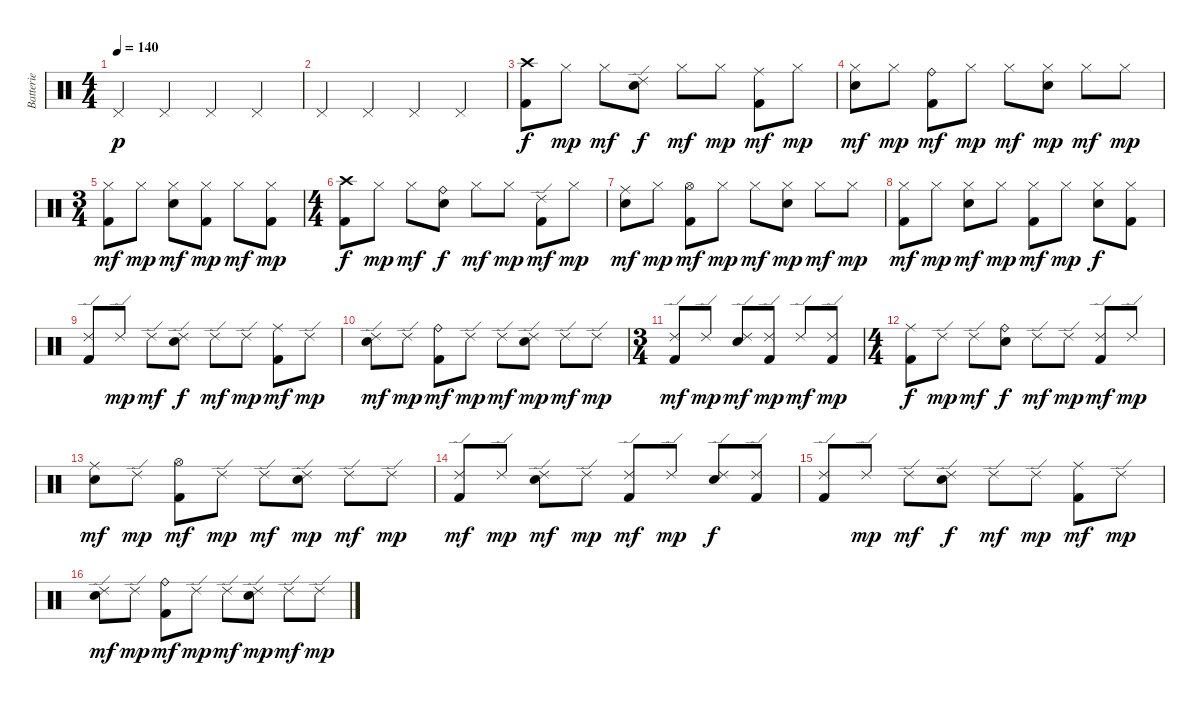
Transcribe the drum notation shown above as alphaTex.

\track ("Batterie" "Batterie") {instrument percussion}
\staff {score}
\articulation defaults
\ts (4 4)
\tempo 140
\clef neutral
\ks c "Pedal Hi-Hat (hit)".4{dy p} "Pedal Hi-Hat (hit)".4 "Pedal Hi-Hat (hit)".4 "Pedal Hi-Hat (hit)".4
|
"Pedal Hi-Hat (hit)".4 "Pedal Hi-Hat (hit)".4 "Pedal Hi-Hat (hit)".4 "Pedal Hi-Hat (hit)".4 |
("Crash high (hit)" "Kick (hit) 2").8{dy f} "Hi-Hat (closed)".8{dy mp} "Hi-Hat (closed)".8{dy mf} ("Ride (edge) 2" "Electric Snare (hit)").8{dy f} "Hi-Hat (closed)".8{dy mf} "Hi-Hat (closed)".8{dy mp} ("Ride (middle)" "Kick (hit) 2").8{dy mf} "Hi-Hat (closed)".8{dy mp} |
("Hi-Hat (closed)" "Electric Snare (hit)").8{dy mf} "Hi-Hat (closed)".8{dy mp} ("Ride (bell)" "Kick (hit) 2").8{dy mf} "Hi-Hat (closed)".8{dy mp} "Hi-Hat (closed)".8{dy mf} ("Hi-Hat (closed)" "Electric Snare (hit)").8{dy mp} "Hi-Hat (closed)".8{dy mf} "Hi-Hat (closed)".8{dy mp} |
\ts (3 4)
("Hi-Hat (closed)" "Kick (hit) 2").8{dy mf} "Hi-Hat (closed)".8{dy mp} ("Hi-Hat (closed)" "Electric Snare (hit)").8{dy mf} ("Hi-Hat (closed)" "Kick (hit) 2").8{dy mp} "Hi-Hat (closed)".8{dy mf} ("Hi-Hat (closed)" "Kick (hit) 2").8{dy mp} |
\ts (4 4)
("Crash high (hit)" "Kick (hit) 2").8{dy f} "Hi-Hat (closed)".8{dy mp} "Hi-Hat (closed)".8{dy mf} ("Ride (bell)" "Electric Snare (hit)").8{dy f} "Hi-Hat (closed)".8{dy mf} "Hi-Hat (closed)".8{dy mp} ("Ride (edge) 2" "Kick (hit) 2").8{dy mf} "Hi-Hat (closed)".8{dy mp} |
("Ride (middle)" "Electric Snare (hit)").8{dy mf} "Hi-Hat (closed)".8{dy mp} ("Hi-Hat (open)" "Kick (hit) 2").8{dy mf} "Hi-Hat (closed)".8{dy mp} "Hi-Hat (closed)".8{dy mf} ("Hi-Hat (closed)" "Electric Snare (hit)").8{dy mp} "Hi-Hat (closed)".8{dy mf} "Hi-Hat (closed)".8{dy mp} |
("Hi-Hat (closed)" "Kick (hit) 2").8{dy mf} "Hi-Hat (closed)".8{dy mp} ("Hi-Hat (closed)" "Electric Snare (hit)").8{dy mf} "Hi-Hat (closed)".8{dy mp} ("Hi-Hat (closed)" "Kick (hit) 2").8{dy mf} "Hi-Hat (closed)".8{dy mp} ("Hi-Hat (closed)" "Electric Snare (hit)").8{dy f} ("Hi-Hat (closed)" "Kick (hit) 2").8 |
("Ride (edge) 2" "Kick (hit) 2").8 "Ride (edge) 2".8{dy mp} "Ride (edge) 2".8{dy mf} ("Ride (edge) 2" "Electric Snare (hit)").8{dy f} "Ride (edge) 2".8{dy mf} "Ride (edge) 2".8{dy mp} ("Ride (middle)" "Kick (hit) 2").8{dy mf} "Ride (edge) 2".8{dy mp} |
("Ride (edge) 2" "Electric Snare (hit)").8{dy mf} "Ride (edge) 2".8{dy mp} ("Ride (bell)" "Kick (hit) 2").8{dy mf} "Ride (edge) 2".8{dy mp} "Ride (edge) 2".8{dy mf} ("Ride (edge) 2" "Electric Snare (hit)").8{dy mp} "Ride (edge) 2".8{dy mf} "Ride (edge) 2".8{dy mp} |
\ts (3 4)
("Ride (edge) 2" "Kick (hit) 2").8{dy mf} "Ride (edge) 2".8{dy mp} ("Ride (edge) 2" "Electric Snare (hit)").8{dy mf} ("Ride (edge) 2" "Kick (hit) 2").8{dy mp} "Ride (edge) 2".8{dy mf} ("Ride (edge) 2" "Kick (hit) 2").8{dy mp} |
\ts (4 4)
("Ride (middle)" "Kick (hit) 2").8{dy f} "Ride (edge) 2".8{dy mp} "Ride (edge) 2".8{dy mf} ("Ride (bell)" "Electric Snare (hit)").8{dy f} "Ride (edge) 2".8{dy mf} "Ride (edge) 2".8{dy mp} ("Ride (edge) 2" "Kick (hit) 2").8{dy mf} "Ride (edge) 2".8{dy mp} |
("Ride (middle)" "Electric Snare (hit)").8{dy mf} "Ride (edge) 2".8{dy mp} ("Hi-Hat (open)" "Kick (hit) 2").8{dy mf} "Ride (edge) 2".8{dy mp} "Ride (edge) 2".8{dy mf} ("Ride (edge) 2" "Electric Snare (hit)").8{dy mp} "Ride (edge) 2".8{dy mf} "Ride (edge) 2".8{dy mp} |
("Ride (edge) 2" "Kick (hit) 2").8{dy mf} "Ride (edge) 2".8{dy mp} ("Ride (edge) 2" "Electric Snare (hit)").8{dy mf} "Ride (edge) 2".8{dy mp} ("Ride (edge) 2" "Kick (hit) 2").8{dy mf} "Ride (edge) 2".8{dy mp} ("Ride (edge) 2" "Electric Snare (hit)").8{dy f} ("Ride (edge) 2" "Kick (hit) 2").8 |
("Ride (edge) 2" "Kick (hit) 2").8 "Ride (edge) 2".8{dy mp} "Ride (edge) 2".8{dy mf} ("Ride (edge) 2" "Electric Snare (hit)").8{dy f} "Ride (edge) 2".8{dy mf} "Ride (edge) 2".8{dy mp} ("Ride (middle)" "Kick (hit) 2").8{dy mf} "Ride (edge) 2".8{dy mp} |
("Ride (edge) 2" "Electric Snare (hit)").8{dy mf} "Ride (edge) 2".8{dy mp} ("Ride (bell)" "Kick (hit) 2").8{dy mf} "Ride (edge) 2".8{dy mp} "Ride (edge) 2".8{dy mf} ("Ride (edge) 2" "Electric Snare (hit)").8{dy mp} "Ride (edge) 2".8{dy mf} "Ride (edge) 2".8{dy mp}
